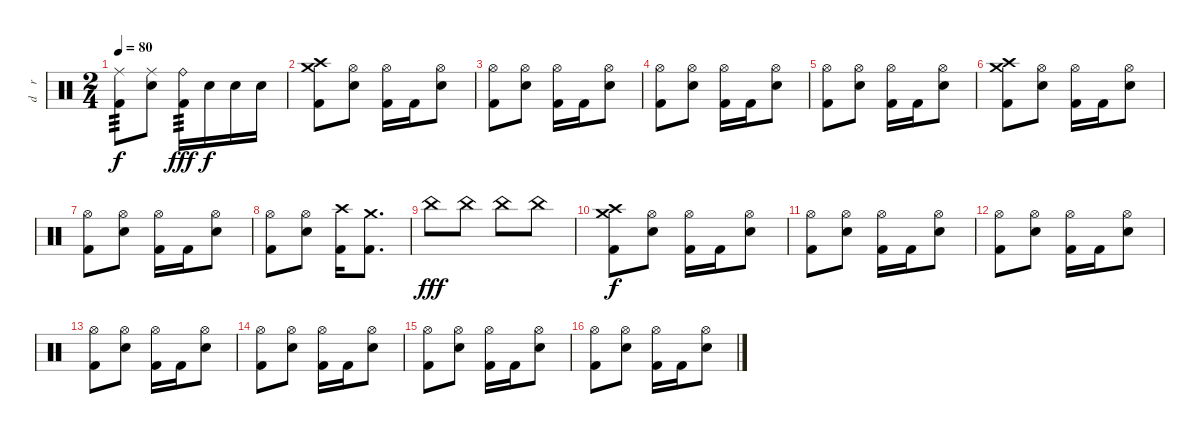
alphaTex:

\track ("d    r     u    m    s" "d    r    ") {instrument percussion}
\staff {score}
\articulation defaults
\ts (2 4)
\tempo 80
\clef neutral
\ks c
("Ride (middle)" "Kick (hit) 2").8{tp 3 dy f} ("Ride (middle)" "Electric Snare (hit)").8 ("Ride (bell)" "Kick (hit) 2").16{tp 3 dy fff} "Electric Snare (hit)".16{dy f} "Electric Snare (hit)".16 "Electric Snare (hit)".16 |
("Crash high (hit)" "Crash medium (hit)" "Kick (hit) 2").8 ("Hi-Hat (open)" "Electric Snare (hit)").8 ("Hi-Hat (open)" "Kick (hit) 2").16 "Kick (hit) 2".16 ("Hi-Hat (open)" "Electric Snare (hit)").8 |
("Hi-Hat (open)" "Kick (hit) 2").8 ("Hi-Hat (open)" "Electric Snare (hit)").8 ("Hi-Hat (open)" "Kick (hit) 2").16 "Kick (hit) 2".16 ("Hi-Hat (open)" "Electric Snare (hit)").8 |
("Hi-Hat (open)" "Kick (hit) 2").8 ("Hi-Hat (open)" "Electric Snare (hit)").8 ("Hi-Hat (open)" "Kick (hit) 2").16 "Kick (hit) 2".16 ("Hi-Hat (open)" "Electric Snare (hit)").8 |
("Hi-Hat (open)" "Kick (hit) 2").8 ("Hi-Hat (open)" "Electric Snare (hit)").8 ("Hi-Hat (open)" "Kick (hit) 2").16 "Kick (hit) 2".16 ("Hi-Hat (open)" "Electric Snare (hit)").8 |
("Crash high (hit)" "Crash medium (hit)" "Kick (hit) 2").8 ("Hi-Hat (open)" "Electric Snare (hit)").8 ("Hi-Hat (open)" "Kick (hit) 2").16 "Kick (hit) 2".16 ("Hi-Hat (open)" "Electric Snare (hit)").8 |
("Hi-Hat (open)" "Kick (hit) 2").8 ("Hi-Hat (open)" "Electric Snare (hit)").8 ("Hi-Hat (open)" "Kick (hit) 2").16 "Kick (hit) 2".16 ("Hi-Hat (open)" "Electric Snare (hit)").8 |
("Hi-Hat (open)" "Kick (hit) 2").8 ("Hi-Hat (open)" "Electric Snare (hit)").8 ("Crash high (hit)" "Kick (hit) 2").16 ("Crash medium (hit)" "Kick (hit) 2").8{d} |
"China (hit)".8{dy fff} "China (hit)".8 "China (hit)".8 "China (hit)".8 |
("Crash high (hit)" "Crash medium (hit)" "Kick (hit) 2").8{dy f} ("Hi-Hat (open)" "Electric Snare (hit)").8 ("Hi-Hat (open)" "Kick (hit) 2").16 "Kick (hit) 2".16 ("Hi-Hat (open)" "Electric Snare (hit)").8 |
("Hi-Hat (open)" "Kick (hit) 2").8 ("Hi-Hat (open)" "Electric Snare (hit)").8 ("Hi-Hat (open)" "Kick (hit) 2").16 "Kick (hit) 2".16 ("Hi-Hat (open)" "Electric Snare (hit)").8 |
("Hi-Hat (open)" "Kick (hit) 2").8 ("Hi-Hat (open)" "Electric Snare (hit)").8 ("Hi-Hat (open)" "Kick (hit) 2").16 "Kick (hit) 2".16 ("Hi-Hat (open)" "Electric Snare (hit)").8 |
("Hi-Hat (open)" "Kick (hit) 2").8 ("Hi-Hat (open)" "Electric Snare (hit)").8 ("Hi-Hat (open)" "Kick (hit) 2").16 "Kick (hit) 2".16 ("Hi-Hat (open)" "Electric Snare (hit)").8 |
("Hi-Hat (open)" "Kick (hit) 2").8 ("Hi-Hat (open)" "Electric Snare (hit)").8 ("Hi-Hat (open)" "Kick (hit) 2").16 "Kick (hit) 2".16 ("Hi-Hat (open)" "Electric Snare (hit)").8 |
("Hi-Hat (open)" "Kick (hit) 2").8 ("Hi-Hat (open)" "Electric Snare (hit)").8 ("Hi-Hat (open)" "Kick (hit) 2").16 "Kick (hit) 2".16 ("Hi-Hat (open)" "Electric Snare (hit)").8 |
("Hi-Hat (open)" "Kick (hit) 2").8 ("Hi-Hat (open)" "Electric Snare (hit)").8 ("Hi-Hat (open)" "Kick (hit) 2").16 "Kick (hit) 2".16 ("Hi-Hat (open)" "Electric Snare (hit)").8
